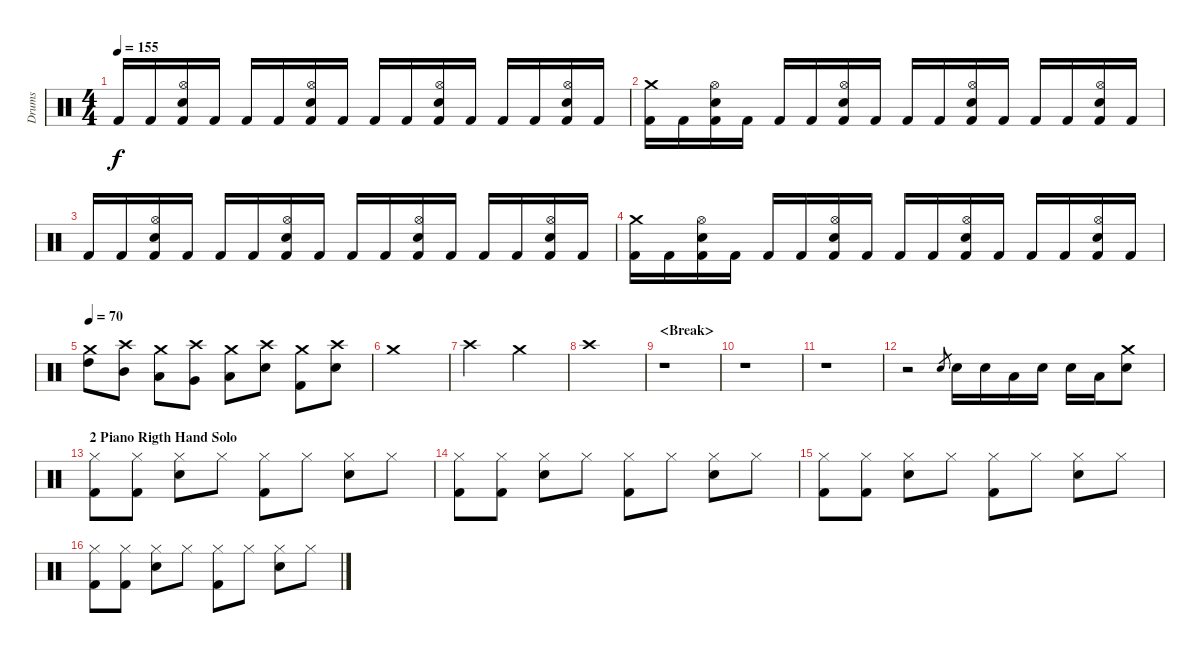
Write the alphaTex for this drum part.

\track ("Drums" "Drums") {instrument percussion}
\staff {score}
\articulation defaults
\ts (4 4)
\tempo 155
\clef neutral
\ks c "Kick (hit) 2".16{dy f} "Kick (hit) 2".16
("Hi-Hat (open)" "Electric Snare (hit)" "Kick (hit) 2").16 "Kick (hit) 2".16 "Kick (hit) 2".16 "Kick (hit) 2".16 ("Hi-Hat (open)" "Electric Snare (hit)" "Kick (hit) 2").16 "Kick (hit) 2".16 "Kick (hit) 2".16 "Kick (hit) 2".16 ("Hi-Hat (open)" "Electric Snare (hit)" "Kick (hit) 2").16 "Kick (hit) 2".16 "Kick (hit) 2".16 "Kick (hit) 2".16 ("Hi-Hat (open)" "Electric Snare (hit)" "Kick (hit) 2").16 "Kick (hit) 2".16 |
("Crash medium (hit)" "Kick (hit) 2").16 "Kick (hit) 2".16 ("Hi-Hat (open)" "Electric Snare (hit)" "Kick (hit) 2").16 "Kick (hit) 2".16 "Kick (hit) 2".16 "Kick (hit) 2".16 ("Hi-Hat (open)" "Electric Snare (hit)" "Kick (hit) 2").16 "Kick (hit) 2".16 "Kick (hit) 2".16 "Kick (hit) 2".16 ("Hi-Hat (open)" "Electric Snare (hit)" "Kick (hit) 2").16 "Kick (hit) 2".16 "Kick (hit) 2".16 "Kick (hit) 2".16 ("Hi-Hat (open)" "Electric Snare (hit)" "Kick (hit) 2").16 "Kick (hit) 2".16 |
"Kick (hit) 2".16 "Kick (hit) 2".16 ("Hi-Hat (open)" "Electric Snare (hit)" "Kick (hit) 2").16 "Kick (hit) 2".16 "Kick (hit) 2".16 "Kick (hit) 2".16 ("Hi-Hat (open)" "Electric Snare (hit)" "Kick (hit) 2").16 "Kick (hit) 2".16 "Kick (hit) 2".16 "Kick (hit) 2".16 ("Hi-Hat (open)" "Electric Snare (hit)" "Kick (hit) 2").16 "Kick (hit) 2".16 "Kick (hit) 2".16 "Kick (hit) 2".16 ("Hi-Hat (open)" "Electric Snare (hit)" "Kick (hit) 2").16 "Kick (hit) 2".16 |
("Crash medium (hit)" "Kick (hit) 2").16 "Kick (hit) 2".16 ("Hi-Hat (open)" "Electric Snare (hit)" "Kick (hit) 2").16 "Kick (hit) 2".16 "Kick (hit) 2".16 "Kick (hit) 2".16 ("Hi-Hat (open)" "Electric Snare (hit)" "Kick (hit) 2").16 "Kick (hit) 2".16 "Kick (hit) 2".16 "Kick (hit) 2".16 ("Hi-Hat (open)" "Electric Snare (hit)" "Kick (hit) 2").16 "Kick (hit) 2".16 "Kick (hit) 2".16 "Kick (hit) 2".16 ("Hi-Hat (open)" "Electric Snare (hit)" "Kick (hit) 2").16 "Kick (hit) 2".16 |
\tempo 70
("Crash medium (hit)" "High Tom (hit)").8 ("Crash high (hit)" "Mid Tom (hit)").8 ("Crash medium (hit)" "Low Tom (hit)").8 ("Crash high (hit)" "Very Low Tom (hit)").8 ("Crash medium (hit)" "Low Floor Tom (hit)").8 ("Crash high (hit)" "Electric Snare (hit)").8 ("Crash medium (hit)" "Kick (hit) 2").8 ("Crash high (hit)" "Electric Snare (hit)").8 |
"Crash medium (hit)".1 |
"Crash high (hit)".2 "Crash medium (hit)".2 |
"Crash high (hit)".1 |
\section ("" "<Break>")
r.1 |
r.1 |
r.1 |
r.2 "Electric Snare (hit)".8{gr} "Electric Snare (hit)".16 "Electric Snare (hit)".16 "Low Tom (hit)".16 "Electric Snare (hit)".16 "Electric Snare (hit)".16 "Low Tom (hit)".16 ("Crash medium (hit)" "Electric Snare (hit)").8 |
\section ("" "2 Piano Rigth Hand Solo")
("Hi-Hat (closed)" "Kick (hit) 2").8 ("Hi-Hat (closed)" "Kick (hit) 2").8 ("Hi-Hat (closed)" "Electric Snare (hit)").8 "Hi-Hat (closed)".8 ("Hi-Hat (closed)" "Kick (hit) 2").8 "Hi-Hat (closed)".8 ("Hi-Hat (closed)" "Electric Snare (hit)").8 "Hi-Hat (closed)".8 |
("Hi-Hat (closed)" "Kick (hit) 2").8 ("Hi-Hat (closed)" "Kick (hit) 2").8 ("Hi-Hat (closed)" "Electric Snare (hit)").8 "Hi-Hat (closed)".8 ("Hi-Hat (closed)" "Kick (hit) 2").8 "Hi-Hat (closed)".8 ("Hi-Hat (closed)" "Electric Snare (hit)").8 "Hi-Hat (closed)".8 |
("Hi-Hat (closed)" "Kick (hit) 2").8 ("Hi-Hat (closed)" "Kick (hit) 2").8 ("Hi-Hat (closed)" "Electric Snare (hit)").8 "Hi-Hat (closed)".8 ("Hi-Hat (closed)" "Kick (hit) 2").8 "Hi-Hat (closed)".8 ("Hi-Hat (closed)" "Electric Snare (hit)").8 "Hi-Hat (closed)".8 |
("Hi-Hat (closed)" "Kick (hit) 2").8 ("Hi-Hat (closed)" "Kick (hit) 2").8 ("Hi-Hat (closed)" "Electric Snare (hit)").8 "Hi-Hat (closed)".8 ("Hi-Hat (closed)" "Kick (hit) 2").8 "Hi-Hat (closed)".8 ("Hi-Hat (closed)" "Electric Snare (hit)").8 "Hi-Hat (closed)".8
